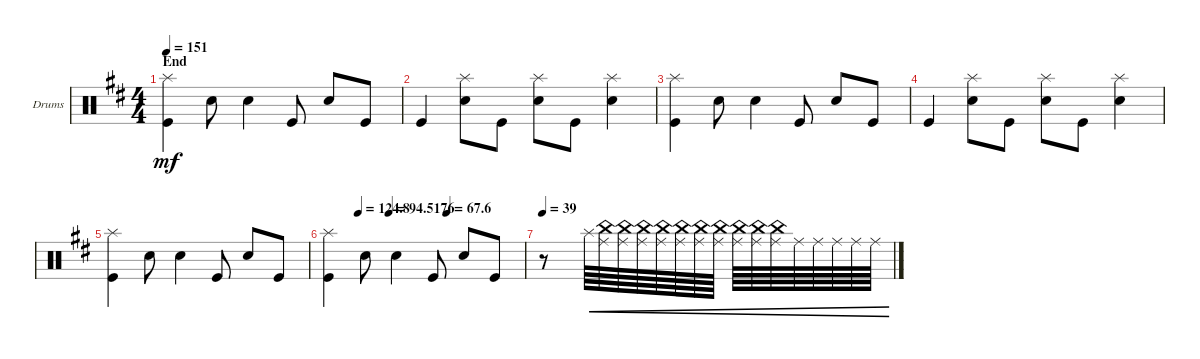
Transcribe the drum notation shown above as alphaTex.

\defaultSystemsLayout 4
\bracketExtendMode groupsimilarinstruments
\firstSystemTrackNameOrientation horizontal
\otherSystemsTrackNameOrientation horizontal
\track ("Drumkit" "Drums") {instrument percussion}
\staff {score}
\articulation defaults
\ts (4 4)
\section ("" "End")
\tempo 151
\clef neutral
\ks d
("Kick (hit)" "Splash (hit)").4{dy mf} "Snare (hit) 2".8 "Snare (hit) 2".4 "Kick (hit)".8 "Snare (hit) 2".8 "Kick (hit)".8 |
"Kick (hit)".4 ("Snare (hit) 2" "Splash (hit)").8 "Kick (hit)".8 ("Snare (hit) 2" "Splash (hit)").8 "Kick (hit)".8 ("Snare (hit) 2" "Splash (hit)").4 |
("Kick (hit)" "Splash (hit)").4 "Snare (hit) 2".8 "Snare (hit) 2".4 "Kick (hit)".8 "Snare (hit) 2".8 "Kick (hit)".8 |
"Kick (hit)".4 ("Snare (hit) 2" "Splash (hit)").8 "Kick (hit)".8 ("Snare (hit) 2" "Splash (hit)").8 "Kick (hit)".8 ("Snare (hit) 2" "Splash (hit)").4 |
("Kick (hit)" "Splash (hit)").4 "Snare (hit) 2".8 "Snare (hit) 2".4 "Kick (hit)".8 "Snare (hit) 2".8 "Kick (hit)".8 |
\tempo (124.8 0.156863)
\tempo (94.5176 0.313726)
\tempo (67.6 0.607843)
("Kick (hit)" "Splash (hit)").4 "Snare (hit) 2".8 "Snare (hit) 2".4 "Kick (hit)".8 "Snare (hit) 2".8 "Kick (hit)".8 |
\tempo 39
r.8 "Splash (hit)".64{cre} ("Ride (middle)" "China (hit)").64{cre} ("Ride (middle)" "China (hit)").64{cre} ("Ride (middle)" "China (hit)").64{cre} ("Ride (middle)" "China (hit)").64{cre} ("Ride (middle)" "China (hit)").64{cre} ("Ride (middle)" "China (hit)").64{cre} ("Ride (middle)" "China (hit)").64{cre} ("Ride (middle)" "China (hit)").64{cre} ("Ride (middle)" "China (hit)").64{cre} ("Ride (middle)" "China (hit)").64{cre} "Ride (middle)".64{cre} "Ride (middle)".64{cre} "Ride (middle)".64{cre} "Ride (middle)".64{cre} "Ride (middle)".64{cre}
